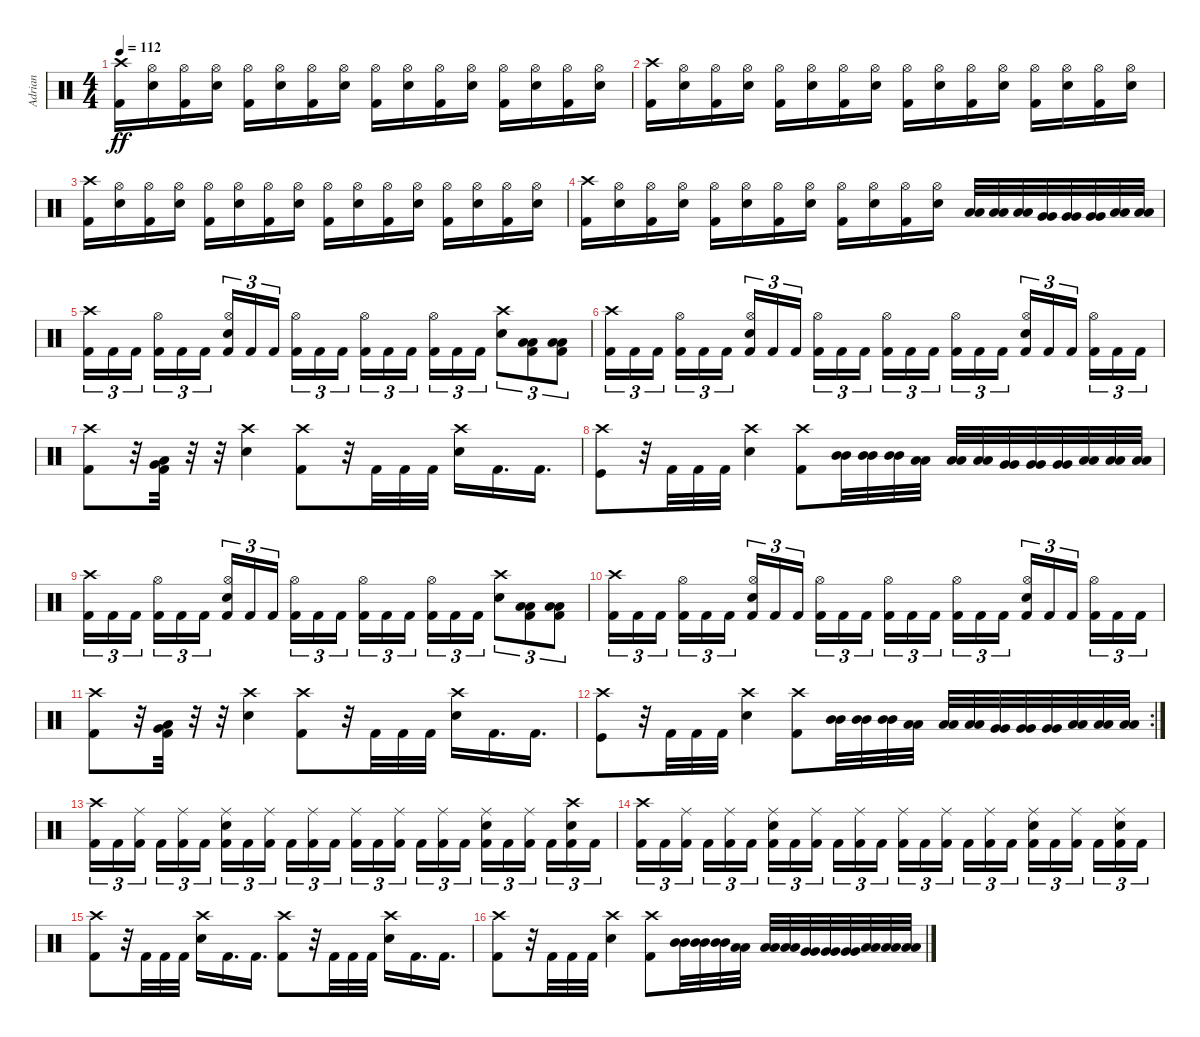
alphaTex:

\track ("Adrian" "Adrian") {instrument percussion}
\staff {score}
\articulation defaults
\ts (4 4)
\tempo 112
\clef neutral
\ks c
("Crash high (hit)" "Kick (hit) 2").16{dy ff} ("Hi-Hat (open)" "Electric Snare (hit)").16 ("Hi-Hat (open)" "Kick (hit) 2").16 ("Hi-Hat (open)" "Electric Snare (hit)").16 ("Hi-Hat (open)" "Kick (hit) 2").16 ("Hi-Hat (open)" "Electric Snare (hit)").16 ("Hi-Hat (open)" "Kick (hit) 2").16 ("Hi-Hat (open)" "Electric Snare (hit)").16 ("Hi-Hat (open)" "Kick (hit) 2").16 ("Hi-Hat (open)" "Electric Snare (hit)").16 ("Hi-Hat (open)" "Kick (hit) 2").16 ("Hi-Hat (open)" "Electric Snare (hit)").16 ("Hi-Hat (open)" "Kick (hit) 2").16 ("Hi-Hat (open)" "Electric Snare (hit)").16 ("Hi-Hat (open)" "Kick (hit) 2").16 ("Hi-Hat (open)" "Electric Snare (hit)").16 |
("Crash high (hit)" "Kick (hit) 2").16 ("Hi-Hat (open)" "Electric Snare (hit)").16 ("Hi-Hat (open)" "Kick (hit) 2").16 ("Hi-Hat (open)" "Electric Snare (hit)").16 ("Hi-Hat (open)" "Kick (hit) 2").16 ("Hi-Hat (open)" "Electric Snare (hit)").16 ("Hi-Hat (open)" "Kick (hit) 2").16 ("Hi-Hat (open)" "Electric Snare (hit)").16 ("Hi-Hat (open)" "Kick (hit) 2").16 ("Hi-Hat (open)" "Electric Snare (hit)").16 ("Hi-Hat (open)" "Kick (hit) 2").16 ("Hi-Hat (open)" "Electric Snare (hit)").16 ("Hi-Hat (open)" "Kick (hit) 2").16 ("Hi-Hat (open)" "Electric Snare (hit)").16 ("Hi-Hat (open)" "Kick (hit) 2").16 ("Hi-Hat (open)" "Electric Snare (hit)").16 |
("Crash high (hit)" "Kick (hit) 2").16 ("Hi-Hat (open)" "Electric Snare (hit)").16 ("Hi-Hat (open)" "Kick (hit) 2").16 ("Hi-Hat (open)" "Electric Snare (hit)").16 ("Hi-Hat (open)" "Kick (hit) 2").16 ("Hi-Hat (open)" "Electric Snare (hit)").16 ("Hi-Hat (open)" "Kick (hit) 2").16 ("Hi-Hat (open)" "Electric Snare (hit)").16 ("Hi-Hat (open)" "Kick (hit) 2").16 ("Hi-Hat (open)" "Electric Snare (hit)").16 ("Hi-Hat (open)" "Kick (hit) 2").16 ("Hi-Hat (open)" "Electric Snare (hit)").16 ("Hi-Hat (open)" "Kick (hit) 2").16 ("Hi-Hat (open)" "Electric Snare (hit)").16 ("Hi-Hat (open)" "Kick (hit) 2").16 ("Hi-Hat (open)" "Electric Snare (hit)").16 |
("Kick (hit) 2" "Crash high (hit)").16 ("Electric Snare (hit)" "Hi-Hat (open)").16 ("Kick (hit) 2" "Hi-Hat (open)").16 ("Electric Snare (hit)" "Hi-Hat (open)").16 ("Kick (hit) 2" "Hi-Hat (open)").16 ("Electric Snare (hit)" "Hi-Hat (open)").16 ("Kick (hit) 2" "Hi-Hat (open)").16 ("Electric Snare (hit)" "Hi-Hat (open)").16 ("Kick (hit) 2" "Hi-Hat (open)").16 ("Electric Snare (hit)" "Hi-Hat (open)").16 ("Kick (hit) 2" "Hi-Hat (open)").16 ("Electric Snare (hit)" "Hi-Hat (open)").16 ("Low Tom (hit)" "Low Tom (hit)").32 ("Low Tom (hit)" "Low Tom (hit)").32 ("Low Tom (hit)" "Low Tom (hit)").32 ("Very Low Tom (hit)" "Very Low Tom (hit)").32 ("Very Low Tom (hit)" "Very Low Tom (hit)").32 ("Very Low Tom (hit)" "Very Low Tom (hit)").32 ("Low Floor Tom (hit)" "Low Floor Tom (hit)").32 ("Low Floor Tom (hit)" "Low Floor Tom (hit)").32 |
("Kick (hit) 2" "Crash high (hit)").16{tu (3 2)} "Kick (hit) 2".16{tu (3 2)} "Kick (hit) 2".16{tu (3 2) beam splitsecondary} ("Kick (hit) 2" "Hi-Hat (open)").16{tu (3 2)} "Kick (hit) 2".16{tu (3 2)} "Kick (hit) 2".16{tu (3 2)} ("Kick (hit) 2" "Electric Snare (hit)" "Hi-Hat (open)").16{tu (3 2)} "Kick (hit) 2".16{tu (3 2)} "Kick (hit) 2".16{tu (3 2) beam splitsecondary} ("Kick (hit) 2" "Hi-Hat (open)").16{tu (3 2)} "Kick (hit) 2".16{tu (3 2)} "Kick (hit) 2".16{tu (3 2)} ("Kick (hit) 2" "Hi-Hat (open)").16{tu (3 2)} "Kick (hit) 2".16{tu (3 2)} "Kick (hit) 2".16{tu (3 2) beam splitsecondary} ("Kick (hit) 2" "Hi-Hat (open)").16{tu (3 2)} "Kick (hit) 2".16{tu (3 2)} "Kick (hit) 2".16{tu (3 2)} ("Electric Snare (hit)" "Crash high (hit)").8{tu (3 2)} ("Low Floor Tom (hit)" "Low Floor Tom (hit)" "Kick (hit) 2").8{tu (3 2)} ("Low Floor Tom (hit)" "Low Floor Tom (hit)" "Kick (hit) 2").8{tu (3 2)} |
("Kick (hit) 2" "Crash high (hit)").16{tu (3 2)} "Kick (hit) 2".16{tu (3 2)} "Kick (hit) 2".16{tu (3 2) beam splitsecondary} ("Kick (hit) 2" "Hi-Hat (open)").16{tu (3 2)} "Kick (hit) 2".16{tu (3 2)} "Kick (hit) 2".16{tu (3 2)} ("Kick (hit) 2" "Electric Snare (hit)" "Hi-Hat (open)").16{tu (3 2)} "Kick (hit) 2".16{tu (3 2)} "Kick (hit) 2".16{tu (3 2) beam splitsecondary} ("Kick (hit) 2" "Hi-Hat (open)").16{tu (3 2)} "Kick (hit) 2".16{tu (3 2)} "Kick (hit) 2".16{tu (3 2)} ("Kick (hit) 2" "Hi-Hat (open)").16{tu (3 2)} "Kick (hit) 2".16{tu (3 2)} "Kick (hit) 2".16{tu (3 2) beam splitsecondary} ("Kick (hit) 2" "Hi-Hat (open)").16{tu (3 2)} "Kick (hit) 2".16{tu (3 2)} "Kick (hit) 2".16{tu (3 2)} ("Kick (hit) 2" "Electric Snare (hit)" "Hi-Hat (open)").16{tu (3 2)} "Kick (hit) 2".16{tu (3 2)} "Kick (hit) 2".16{tu (3 2) beam splitsecondary} ("Kick (hit) 2" "Hi-Hat (open)").16{tu (3 2)} "Kick (hit) 2".16{tu (3 2)} "Kick (hit) 2".16{tu (3 2)} |
("Crash high (hit)" "Kick (hit) 2").8 r.32 ("Low Tom (hit)" "Very Low Tom (hit)" "Kick (hit) 2").32 r.32 r.32 ("Crash high (hit)" "Electric Snare (hit)").4 ("Crash high (hit)" "Kick (hit) 2").8 r.32 "Kick (hit) 2".32 "Kick (hit) 2".32 "Kick (hit) 2".32 ("Crash high (hit)" "Electric Snare (hit)").16 "Kick (hit) 2".16{d} "Kick (hit) 2".16{d} |
("Crash high (hit)" "Kick (hit)").8 r.32 "Kick (hit) 2".32 "Kick (hit) 2".32 "Kick (hit) 2".32 ("Crash high (hit)" "Electric Snare (hit)").4 ("Crash high (hit)" "Kick (hit) 2").8 ("Mid Tom (hit)" "Mid Tom (hit)").32 ("Mid Tom (hit)" "Mid Tom (hit)").32 ("Mid Tom (hit)" "Mid Tom (hit)").32 ("Low Tom (hit)" "Low Tom (hit)").32 ("Low Tom (hit)" "Low Tom (hit)").32 ("Low Tom (hit)" "Low Tom (hit)").32 ("Very Low Tom (hit)" "Very Low Tom (hit)").32 ("Very Low Tom (hit)" "Very Low Tom (hit)").32 ("Very Low Tom (hit)" "Very Low Tom (hit)").32 ("Low Floor Tom (hit)" "Low Floor Tom (hit)").32 ("Low Floor Tom (hit)" "Low Floor Tom (hit)").32 ("Low Floor Tom (hit)" "Low Floor Tom (hit)").32 |
("Kick (hit) 2" "Crash high (hit)").16{tu (3 2)} "Kick (hit) 2".16{tu (3 2)} "Kick (hit) 2".16{tu (3 2) beam splitsecondary} ("Kick (hit) 2" "Hi-Hat (open)").16{tu (3 2)} "Kick (hit) 2".16{tu (3 2)} "Kick (hit) 2".16{tu (3 2)} ("Kick (hit) 2" "Electric Snare (hit)" "Hi-Hat (open)").16{tu (3 2)} "Kick (hit) 2".16{tu (3 2)} "Kick (hit) 2".16{tu (3 2) beam splitsecondary} ("Kick (hit) 2" "Hi-Hat (open)").16{tu (3 2)} "Kick (hit) 2".16{tu (3 2)} "Kick (hit) 2".16{tu (3 2)} ("Kick (hit) 2" "Hi-Hat (open)").16{tu (3 2)} "Kick (hit) 2".16{tu (3 2)} "Kick (hit) 2".16{tu (3 2) beam splitsecondary} ("Kick (hit) 2" "Hi-Hat (open)").16{tu (3 2)} "Kick (hit) 2".16{tu (3 2)} "Kick (hit) 2".16{tu (3 2)} ("Electric Snare (hit)" "Crash high (hit)").8{tu (3 2)} ("Low Floor Tom (hit)" "Low Floor Tom (hit)" "Kick (hit) 2").8{tu (3 2)} ("Low Floor Tom (hit)" "Low Floor Tom (hit)" "Kick (hit) 2").8{tu (3 2)} |
("Kick (hit) 2" "Crash high (hit)").16{tu (3 2)} "Kick (hit) 2".16{tu (3 2)} "Kick (hit) 2".16{tu (3 2) beam splitsecondary} ("Kick (hit) 2" "Hi-Hat (open)").16{tu (3 2)} "Kick (hit) 2".16{tu (3 2)} "Kick (hit) 2".16{tu (3 2)} ("Kick (hit) 2" "Electric Snare (hit)" "Hi-Hat (open)").16{tu (3 2)} "Kick (hit) 2".16{tu (3 2)} "Kick (hit) 2".16{tu (3 2) beam splitsecondary} ("Kick (hit) 2" "Hi-Hat (open)").16{tu (3 2)} "Kick (hit) 2".16{tu (3 2)} "Kick (hit) 2".16{tu (3 2)} ("Kick (hit) 2" "Hi-Hat (open)").16{tu (3 2)} "Kick (hit) 2".16{tu (3 2)} "Kick (hit) 2".16{tu (3 2) beam splitsecondary} ("Kick (hit) 2" "Hi-Hat (open)").16{tu (3 2)} "Kick (hit) 2".16{tu (3 2)} "Kick (hit) 2".16{tu (3 2)} ("Kick (hit) 2" "Electric Snare (hit)" "Hi-Hat (open)").16{tu (3 2)} "Kick (hit) 2".16{tu (3 2)} "Kick (hit) 2".16{tu (3 2) beam splitsecondary} ("Kick (hit) 2" "Hi-Hat (open)").16{tu (3 2)} "Kick (hit) 2".16{tu (3 2)} "Kick (hit) 2".16{tu (3 2)} |
("Crash high (hit)" "Kick (hit) 2").8 r.32 ("Low Tom (hit)" "Very Low Tom (hit)" "Kick (hit) 2").32 r.32 r.32 ("Crash high (hit)" "Electric Snare (hit)").4 ("Crash high (hit)" "Kick (hit) 2").8 r.32 "Kick (hit) 2".32 "Kick (hit) 2".32 "Kick (hit) 2".32 ("Crash high (hit)" "Electric Snare (hit)").16 "Kick (hit) 2".16{d} "Kick (hit) 2".16{d} |
\rc 2
("Crash high (hit)" "Kick (hit)").8 r.32 "Kick (hit) 2".32 "Kick (hit) 2".32 "Kick (hit) 2".32 ("Crash high (hit)" "Electric Snare (hit)").4 ("Crash high (hit)" "Kick (hit) 2").8 ("Mid Tom (hit)" "Mid Tom (hit)").32 ("Mid Tom (hit)" "Mid Tom (hit)").32 ("Mid Tom (hit)" "Mid Tom (hit)").32 ("Low Tom (hit)" "Low Tom (hit)").32 ("Low Tom (hit)" "Low Tom (hit)").32 ("Low Tom (hit)" "Low Tom (hit)").32 ("Very Low Tom (hit)" "Very Low Tom (hit)").32 ("Very Low Tom (hit)" "Very Low Tom (hit)").32 ("Very Low Tom (hit)" "Very Low Tom (hit)").32 ("Low Floor Tom (hit)" "Low Floor Tom (hit)").32 ("Low Floor Tom (hit)" "Low Floor Tom (hit)").32 ("Low Floor Tom (hit)" "Low Floor Tom (hit)").32 |
("Crash high (hit)" "Kick (hit) 2").16{tu (3 2)} "Kick (hit) 2".16{tu (3 2)} ("Ride (middle)" "Kick (hit) 2").16{tu (3 2) beam splitsecondary} "Kick (hit) 2".16{tu (3 2)} ("Ride (middle)" "Kick (hit) 2").16{tu (3 2)} "Kick (hit) 2".16{tu (3 2)} ("Ride (middle)" "Kick (hit) 2" "Electric Snare (hit)").16{tu (3 2)} "Kick (hit) 2".16{tu (3 2)} ("Ride (middle)" "Kick (hit) 2").16{tu (3 2) beam splitsecondary} "Kick (hit) 2".16{tu (3 2)} ("Ride (middle)" "Kick (hit) 2").16{tu (3 2)} "Kick (hit) 2".16{tu (3 2)} ("Ride (middle)" "Kick (hit) 2").16{tu (3 2)} "Kick (hit) 2".16{tu (3 2)} ("Ride (middle)" "Kick (hit) 2").16{tu (3 2) beam splitsecondary} "Kick (hit) 2".16{tu (3 2)} ("Ride (middle)" "Kick (hit) 2").16{tu (3 2)} "Kick (hit) 2".16{tu (3 2)} ("Ride (middle)" "Kick (hit) 2" "Electric Snare (hit)").16{tu (3 2)} "Kick (hit) 2".16{tu (3 2)} ("Ride (middle)" "Kick (hit) 2").16{tu (3 2) beam splitsecondary} "Kick (hit) 2".16{tu (3 2)} ("Crash high (hit)" "Kick (hit) 2" "Electric Snare (hit)").16{tu (3 2)} "Kick (hit) 2".16{tu (3 2)} |
("Crash high (hit)" "Kick (hit) 2").16{tu (3 2)} "Kick (hit) 2".16{tu (3 2)} ("Ride (middle)" "Kick (hit) 2").16{tu (3 2) beam splitsecondary} "Kick (hit) 2".16{tu (3 2)} ("Ride (middle)" "Kick (hit) 2").16{tu (3 2)} "Kick (hit) 2".16{tu (3 2)} ("Ride (middle)" "Kick (hit) 2" "Electric Snare (hit)").16{tu (3 2)} "Kick (hit) 2".16{tu (3 2)} ("Ride (middle)" "Kick (hit) 2").16{tu (3 2) beam splitsecondary} "Kick (hit) 2".16{tu (3 2)} ("Ride (middle)" "Kick (hit) 2").16{tu (3 2)} "Kick (hit) 2".16{tu (3 2)} ("Ride (middle)" "Kick (hit) 2").16{tu (3 2)} "Kick (hit) 2".16{tu (3 2)} ("Ride (middle)" "Kick (hit) 2").16{tu (3 2) beam splitsecondary} "Kick (hit) 2".16{tu (3 2)} ("Ride (middle)" "Kick (hit) 2").16{tu (3 2)} "Kick (hit) 2".16{tu (3 2)} ("Ride (middle)" "Kick (hit) 2" "Electric Snare (hit)").16{tu (3 2)} "Kick (hit) 2".16{tu (3 2)} ("Ride (middle)" "Kick (hit) 2").16{tu (3 2) beam splitsecondary} "Kick (hit) 2".16{tu (3 2)} ("Ride (middle)" "Kick (hit) 2" "Electric Snare (hit)").16{tu (3 2)} "Kick (hit) 2".16{tu (3 2)} |
("Crash high (hit)" "Kick (hit) 2").8 r.32 "Kick (hit) 2".32 "Kick (hit) 2".32 "Kick (hit) 2".32 ("Crash high (hit)" "Electric Snare (hit)").16 "Kick (hit) 2".16{d} "Kick (hit) 2".16{d} ("Crash high (hit)" "Kick (hit) 2").8 r.32 "Kick (hit) 2".32 "Kick (hit) 2".32 "Kick (hit) 2".32 ("Crash high (hit)" "Electric Snare (hit)").16 "Kick (hit) 2".16{d} "Kick (hit) 2".16{d} |
("Crash high (hit)" "Kick (hit) 2").8 r.32 "Kick (hit) 2".32 "Kick (hit) 2".32 "Kick (hit) 2".32 ("Crash high (hit)" "Electric Snare (hit)").4 ("Crash high (hit)" "Kick (hit) 2").8 ("Mid Tom (hit)" "Mid Tom (hit)").32 ("Mid Tom (hit)" "Mid Tom (hit)").32 ("Mid Tom (hit)" "Mid Tom (hit)").32 ("Low Tom (hit)" "Low Tom (hit)").32 ("Low Tom (hit)" "Low Tom (hit)").32 ("Low Tom (hit)" "Low Tom (hit)").32 ("Very Low Tom (hit)" "Very Low Tom (hit)").32 ("Very Low Tom (hit)" "Very Low Tom (hit)").32 ("Very Low Tom (hit)" "Very Low Tom (hit)").32 ("Low Floor Tom (hit)" "Low Floor Tom (hit)").32 ("Low Floor Tom (hit)" "Low Floor Tom (hit)").32 ("Low Floor Tom (hit)" "Low Floor Tom (hit)").32
